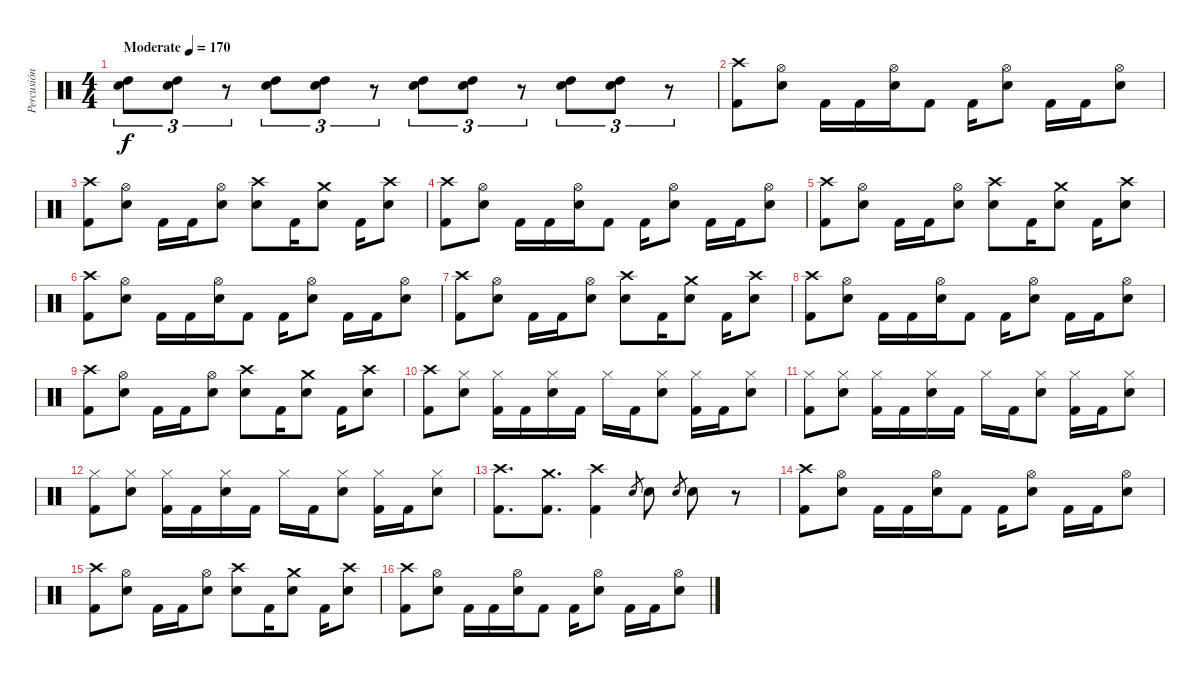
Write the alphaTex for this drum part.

\track ("Percusión" "Percusión") {instrument percussion}
\staff {score}
\articulation defaults
\ts (4 4)
\tempo (170 "Moderate")
\clef neutral
\ks c
("High Tom (hit)" "Electric Snare (hit)").8{tu (3 2) dy f} ("High Tom (hit)" "Electric Snare (hit)").8{tu (3 2)} r.8{tu (3 2)} ("High Tom (hit)" "Electric Snare (hit)").8{tu (3 2)} ("High Tom (hit)" "Electric Snare (hit)").8{tu (3 2)} r.8{tu (3 2)} ("High Tom (hit)" "Electric Snare (hit)").8{tu (3 2)} ("High Tom (hit)" "Electric Snare (hit)").8{tu (3 2)} r.8{tu (3 2)} ("High Tom (hit)" "Electric Snare (hit)").8{tu (3 2)} ("High Tom (hit)" "Electric Snare (hit)").8{tu (3 2)} r.8{tu (3 2)} |
("Crash high (hit)" "Kick (hit) 2").8 ("Hi-Hat (open)" "Electric Snare (hit)").8 "Kick (hit) 2".16 "Kick (hit) 2".16 ("Hi-Hat (open)" "Electric Snare (hit)").16 "Kick (hit) 2".8 "Kick (hit) 2".16 ("Hi-Hat (open)" "Electric Snare (hit)").8 "Kick (hit) 2".16 "Kick (hit) 2".16 ("Hi-Hat (open)" "Electric Snare (hit)").8 |
("Crash high (hit)" "Kick (hit) 2").8 ("Hi-Hat (open)" "Electric Snare (hit)").8 "Kick (hit) 2".16 "Kick (hit) 2".16 ("Hi-Hat (open)" "Electric Snare (hit)").8 ("Crash high (hit)" "Electric Snare (hit)").8 "Kick (hit) 2".16 ("Crash medium (hit)" "Electric Snare (hit)").8 "Kick (hit) 2".16 ("Crash high (hit)" "Electric Snare (hit)").8 |
("Crash high (hit)" "Kick (hit) 2").8 ("Hi-Hat (open)" "Electric Snare (hit)").8 "Kick (hit) 2".16 "Kick (hit) 2".16 ("Hi-Hat (open)" "Electric Snare (hit)").16 "Kick (hit) 2".8 "Kick (hit) 2".16 ("Hi-Hat (open)" "Electric Snare (hit)").8 "Kick (hit) 2".16 "Kick (hit) 2".16 ("Hi-Hat (open)" "Electric Snare (hit)").8 |
("Crash high (hit)" "Kick (hit) 2").8 ("Hi-Hat (open)" "Electric Snare (hit)").8 "Kick (hit) 2".16 "Kick (hit) 2".16 ("Hi-Hat (open)" "Electric Snare (hit)").8 ("Crash high (hit)" "Electric Snare (hit)").8 "Kick (hit) 2".16 ("Crash medium (hit)" "Electric Snare (hit)").8 "Kick (hit) 2".16 ("Crash high (hit)" "Electric Snare (hit)").8 |
("Crash high (hit)" "Kick (hit) 2").8 ("Hi-Hat (open)" "Electric Snare (hit)").8 "Kick (hit) 2".16 "Kick (hit) 2".16 ("Hi-Hat (open)" "Electric Snare (hit)").16 "Kick (hit) 2".8 "Kick (hit) 2".16 ("Hi-Hat (open)" "Electric Snare (hit)").8 "Kick (hit) 2".16 "Kick (hit) 2".16 ("Hi-Hat (open)" "Electric Snare (hit)").8 |
("Crash high (hit)" "Kick (hit) 2").8 ("Hi-Hat (open)" "Electric Snare (hit)").8 "Kick (hit) 2".16 "Kick (hit) 2".16 ("Hi-Hat (open)" "Electric Snare (hit)").8 ("Crash high (hit)" "Electric Snare (hit)").8 "Kick (hit) 2".16 ("Crash medium (hit)" "Electric Snare (hit)").8 "Kick (hit) 2".16 ("Crash high (hit)" "Electric Snare (hit)").8 |
("Crash high (hit)" "Kick (hit) 2").8 ("Hi-Hat (open)" "Electric Snare (hit)").8 "Kick (hit) 2".16 "Kick (hit) 2".16 ("Hi-Hat (open)" "Electric Snare (hit)").16 "Kick (hit) 2".8 "Kick (hit) 2".16 ("Hi-Hat (open)" "Electric Snare (hit)").8 "Kick (hit) 2".16 "Kick (hit) 2".16 ("Hi-Hat (open)" "Electric Snare (hit)").8 |
("Crash high (hit)" "Kick (hit) 2").8 ("Hi-Hat (open)" "Electric Snare (hit)").8 "Kick (hit) 2".16 "Kick (hit) 2".16 ("Hi-Hat (open)" "Electric Snare (hit)").8 ("Crash high (hit)" "Electric Snare (hit)").8 "Kick (hit) 2".16 ("Crash medium (hit)" "Electric Snare (hit)").8 "Kick (hit) 2".16 ("Crash high (hit)" "Electric Snare (hit)").8 |
("Crash high (hit)" "Kick (hit) 2").8 ("Hi-Hat (closed)" "Electric Snare (hit)").8 ("Hi-Hat (closed)" "Kick (hit) 2").16 "Kick (hit) 2".16 ("Hi-Hat (closed)" "Electric Snare (hit)").16 "Kick (hit) 2".16 "Hi-Hat (closed)".16 "Kick (hit) 2".16 ("Hi-Hat (closed)" "Electric Snare (hit)").8 ("Hi-Hat (closed)" "Kick (hit) 2").16 "Kick (hit) 2".16 ("Hi-Hat (closed)" "Electric Snare (hit)").8 |
("Hi-Hat (closed)" "Kick (hit) 2").8 ("Hi-Hat (closed)" "Electric Snare (hit)").8 ("Hi-Hat (closed)" "Kick (hit) 2").16 "Kick (hit) 2".16 ("Hi-Hat (closed)" "Electric Snare (hit)").16 "Kick (hit) 2".16 "Hi-Hat (closed)".16 "Kick (hit) 2".16 ("Hi-Hat (closed)" "Electric Snare (hit)").8 ("Hi-Hat (closed)" "Kick (hit) 2").16 "Kick (hit) 2".16 ("Hi-Hat (closed)" "Electric Snare (hit)").8 |
("Hi-Hat (closed)" "Kick (hit) 2").8 ("Hi-Hat (closed)" "Electric Snare (hit)").8 ("Hi-Hat (closed)" "Kick (hit) 2").16 "Kick (hit) 2".16 ("Hi-Hat (closed)" "Electric Snare (hit)").16 "Kick (hit) 2".16 "Hi-Hat (closed)".16 "Kick (hit) 2".16 ("Hi-Hat (closed)" "Electric Snare (hit)").8 ("Hi-Hat (closed)" "Kick (hit) 2").16 "Kick (hit) 2".16 ("Hi-Hat (closed)" "Electric Snare (hit)").8 |
("Crash high (hit)" "Kick (hit) 2").8{d} ("Crash medium (hit)" "Kick (hit) 2").8{d} ("Crash high (hit)" "Kick (hit) 2").4 "Electric Snare (hit)".8{gr} "Electric Snare (hit)".8 "Electric Snare (hit)".8{gr} "Electric Snare (hit)".8 r.8 |
("Crash high (hit)" "Kick (hit) 2").8 ("Hi-Hat (open)" "Electric Snare (hit)").8 "Kick (hit) 2".16 "Kick (hit) 2".16 ("Hi-Hat (open)" "Electric Snare (hit)").16 "Kick (hit) 2".8 "Kick (hit) 2".16 ("Hi-Hat (open)" "Electric Snare (hit)").8 "Kick (hit) 2".16 "Kick (hit) 2".16 ("Hi-Hat (open)" "Electric Snare (hit)").8 |
("Crash high (hit)" "Kick (hit) 2").8 ("Hi-Hat (open)" "Electric Snare (hit)").8 "Kick (hit) 2".16 "Kick (hit) 2".16 ("Hi-Hat (open)" "Electric Snare (hit)").8 ("Crash high (hit)" "Electric Snare (hit)").8 "Kick (hit) 2".16 ("Crash medium (hit)" "Electric Snare (hit)").8 "Kick (hit) 2".16 ("Crash high (hit)" "Electric Snare (hit)").8 |
("Crash high (hit)" "Kick (hit) 2").8 ("Hi-Hat (open)" "Electric Snare (hit)").8 "Kick (hit) 2".16 "Kick (hit) 2".16 ("Hi-Hat (open)" "Electric Snare (hit)").16 "Kick (hit) 2".8 "Kick (hit) 2".16 ("Hi-Hat (open)" "Electric Snare (hit)").8 "Kick (hit) 2".16 "Kick (hit) 2".16 ("Hi-Hat (open)" "Electric Snare (hit)").8
